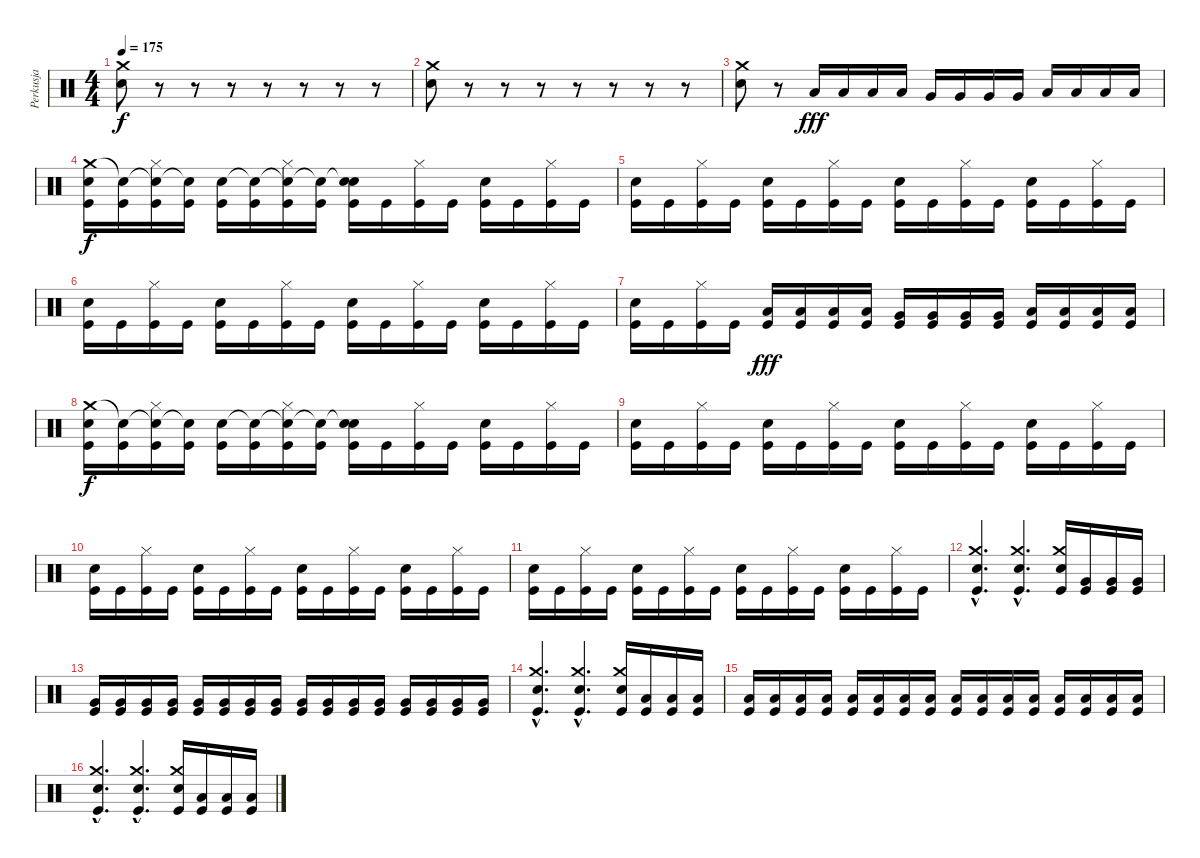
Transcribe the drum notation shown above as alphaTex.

\track ("Perkusja" "Perkusja") {instrument percussion}
\staff {score}
\articulation defaults
\ts (4 4)
\tempo 175
\clef neutral
\ks c
("Snare (hit) 2" "Crash medium (hit)").8{dy f} r.8 r.8 r.8 r.8 r.8 r.8 r.8 |
("Snare (hit) 2" "Crash medium (hit)").8 r.8 r.8 r.8 r.8 r.8 r.8 r.8 |
("Snare (hit) 2" "Crash medium (hit)").8 r.8 "Low Tom (hit)".16{dy fff} "Low Tom (hit)".16 "Low Tom (hit)".16 "Low Tom (hit)".16 "Very Low Tom (hit)".16 "Very Low Tom (hit)".16 "Very Low Tom (hit)".16 "Very Low Tom (hit)".16 "Low Floor Tom (hit)".16 "Low Floor Tom (hit)".16 "Low Floor Tom (hit)".16 "Low Floor Tom (hit)".16 |
("Crash medium (hit)" "Snare (hit) 2" "Kick (hit)").16{dy f} ("Snare (hit)"{t} "Kick (hit)").16 ("Snare (hit)"{t} "Hi-Hat (closed)" "Kick (hit)").16 ("Snare (hit)"{t} "Kick (hit)").16 ("Snare (hit) 2" "Kick (hit)").16 ("Snare (hit)"{t} "Kick (hit)").16 ("Snare (hit)"{t} "Hi-Hat (closed)" "Kick (hit)").16 ("Snare (hit)"{t} "Kick (hit)").16 ("Snare (hit)"{t} "Snare (hit) 2" "Kick (hit)").16 "Kick (hit)".16 ("Hi-Hat (closed)" "Kick (hit)").16 "Kick (hit)".16 ("Snare (hit) 2" "Kick (hit)").16 "Kick (hit)".16 ("Hi-Hat (closed)" "Kick (hit)").16 "Kick (hit)".16 |
("Snare (hit) 2" "Kick (hit)").16 "Kick (hit)".16 ("Hi-Hat (closed)" "Kick (hit)").16 "Kick (hit)".16 ("Snare (hit) 2" "Kick (hit)").16 "Kick (hit)".16 ("Hi-Hat (closed)" "Kick (hit)").16 "Kick (hit)".16 ("Snare (hit) 2" "Kick (hit)").16 "Kick (hit)".16 ("Hi-Hat (closed)" "Kick (hit)").16 "Kick (hit)".16 ("Snare (hit) 2" "Kick (hit)").16 "Kick (hit)".16 ("Hi-Hat (closed)" "Kick (hit)").16 "Kick (hit)".16 |
("Snare (hit) 2" "Kick (hit)").16 "Kick (hit)".16 ("Hi-Hat (closed)" "Kick (hit)").16 "Kick (hit)".16 ("Snare (hit) 2" "Kick (hit)").16 "Kick (hit)".16 ("Hi-Hat (closed)" "Kick (hit)").16 "Kick (hit)".16 ("Snare (hit) 2" "Kick (hit)").16 "Kick (hit)".16 ("Hi-Hat (closed)" "Kick (hit)").16 "Kick (hit)".16 ("Snare (hit) 2" "Kick (hit)").16 "Kick (hit)".16 ("Hi-Hat (closed)" "Kick (hit)").16 "Kick (hit)".16 |
("Snare (hit) 2" "Kick (hit)").16 "Kick (hit)".16 ("Hi-Hat (closed)" "Kick (hit)").16 "Kick (hit)".16 ("Low Tom (hit)" "Kick (hit)").16{dy fff} ("Low Tom (hit)" "Kick (hit)").16 ("Low Tom (hit)" "Kick (hit)").16 ("Low Tom (hit)" "Kick (hit)").16 ("Very Low Tom (hit)" "Kick (hit)").16 ("Very Low Tom (hit)" "Kick (hit)").16 ("Very Low Tom (hit)" "Kick (hit)").16 ("Very Low Tom (hit)" "Kick (hit)").16 ("Low Floor Tom (hit)" "Kick (hit)").16 ("Low Floor Tom (hit)" "Kick (hit)").16 ("Low Floor Tom (hit)" "Kick (hit)").16 ("Low Floor Tom (hit)" "Kick (hit)").16 |
("Crash medium (hit)" "Snare (hit) 2" "Kick (hit)").16{dy f} ("Snare (hit)"{t} "Kick (hit)").16 ("Snare (hit)"{t} "Hi-Hat (closed)" "Kick (hit)").16 ("Snare (hit)"{t} "Kick (hit)").16 ("Snare (hit) 2" "Kick (hit)").16 ("Snare (hit)"{t} "Kick (hit)").16 ("Snare (hit)"{t} "Hi-Hat (closed)" "Kick (hit)").16 ("Snare (hit)"{t} "Kick (hit)").16 ("Snare (hit)"{t} "Snare (hit) 2" "Kick (hit)").16 "Kick (hit)".16 ("Hi-Hat (closed)" "Kick (hit)").16 "Kick (hit)".16 ("Snare (hit) 2" "Kick (hit)").16 "Kick (hit)".16 ("Hi-Hat (closed)" "Kick (hit)").16 "Kick (hit)".16 |
("Snare (hit) 2" "Kick (hit)").16 "Kick (hit)".16 ("Hi-Hat (closed)" "Kick (hit)").16 "Kick (hit)".16 ("Snare (hit) 2" "Kick (hit)").16 "Kick (hit)".16 ("Hi-Hat (closed)" "Kick (hit)").16 "Kick (hit)".16 ("Snare (hit) 2" "Kick (hit)").16 "Kick (hit)".16 ("Hi-Hat (closed)" "Kick (hit)").16 "Kick (hit)".16 ("Snare (hit) 2" "Kick (hit)").16 "Kick (hit)".16 ("Hi-Hat (closed)" "Kick (hit)").16 "Kick (hit)".16 |
("Snare (hit) 2" "Kick (hit)").16 "Kick (hit)".16 ("Hi-Hat (closed)" "Kick (hit)").16 "Kick (hit)".16 ("Snare (hit) 2" "Kick (hit)").16 "Kick (hit)".16 ("Hi-Hat (closed)" "Kick (hit)").16 "Kick (hit)".16 ("Snare (hit) 2" "Kick (hit)").16 "Kick (hit)".16 ("Hi-Hat (closed)" "Kick (hit)").16 "Kick (hit)".16 ("Snare (hit) 2" "Kick (hit)").16 "Kick (hit)".16 ("Hi-Hat (closed)" "Kick (hit)").16 "Kick (hit)".16 |
("Snare (hit) 2" "Kick (hit)").16 "Kick (hit)".16 ("Hi-Hat (closed)" "Kick (hit)").16 "Kick (hit)".16 ("Snare (hit) 2" "Kick (hit)").16 "Kick (hit)".16 ("Hi-Hat (closed)" "Kick (hit)").16 "Kick (hit)".16 ("Snare (hit) 2" "Kick (hit)").16 "Kick (hit)".16 ("Hi-Hat (closed)" "Kick (hit)").16 "Kick (hit)".16 ("Snare (hit) 2" "Kick (hit)").16 "Kick (hit)".16 ("Hi-Hat (closed)" "Kick (hit)").16 "Kick (hit)".16 |
("Crash medium (hit)"{hac} "Snare (hit) 2"{hac} "Kick (hit)"{hac}).4{d} ("Crash medium (hit)"{hac} "Snare (hit) 2"{hac} "Kick (hit)"{hac}).4{d} ("Crash medium (hit)" "Snare (hit) 2" "Kick (hit)").16 ("Very Low Tom (hit)" "Kick (hit)").16 ("Very Low Tom (hit)" "Kick (hit)").16 ("Very Low Tom (hit)" "Kick (hit)").16 |
("Very Low Tom (hit)" "Kick (hit)").16 ("Very Low Tom (hit)" "Kick (hit)").16 ("Very Low Tom (hit)" "Kick (hit)").16 ("Very Low Tom (hit)" "Kick (hit)").16 ("Very Low Tom (hit)" "Kick (hit)").16 ("Very Low Tom (hit)" "Kick (hit)").16 ("Very Low Tom (hit)" "Kick (hit)").16 ("Very Low Tom (hit)" "Kick (hit)").16 ("Very Low Tom (hit)" "Kick (hit)").16 ("Very Low Tom (hit)" "Kick (hit)").16 ("Very Low Tom (hit)" "Kick (hit)").16 ("Very Low Tom (hit)" "Kick (hit)").16 ("Very Low Tom (hit)" "Kick (hit)").16 ("Very Low Tom (hit)" "Kick (hit)").16 ("Very Low Tom (hit)" "Kick (hit)").16 ("Very Low Tom (hit)" "Kick (hit)").16 |
("Crash medium (hit)"{hac} "Snare (hit) 2"{hac} "Kick (hit)"{hac}).4{d} ("Crash medium (hit)"{hac} "Snare (hit) 2"{hac} "Kick (hit)"{hac}).4{d} ("Crash medium (hit)" "Snare (hit) 2" "Kick (hit)").16 ("Low Floor Tom (hit)" "Kick (hit)").16 ("Low Floor Tom (hit)" "Kick (hit)").16 ("Low Floor Tom (hit)" "Kick (hit)").16 |
("Low Floor Tom (hit)" "Kick (hit)").16 ("Low Floor Tom (hit)" "Kick (hit)").16 ("Low Floor Tom (hit)" "Kick (hit)").16 ("Low Floor Tom (hit)" "Kick (hit)").16 ("Low Floor Tom (hit)" "Kick (hit)").16 ("Low Floor Tom (hit)" "Kick (hit)").16 ("Low Floor Tom (hit)" "Kick (hit)").16 ("Low Floor Tom (hit)" "Kick (hit)").16 ("Low Floor Tom (hit)" "Kick (hit)").16 ("Low Floor Tom (hit)" "Kick (hit)").16 ("Low Floor Tom (hit)" "Kick (hit)").16 ("Low Floor Tom (hit)" "Kick (hit)").16 ("Low Floor Tom (hit)" "Kick (hit)").16 ("Low Floor Tom (hit)" "Kick (hit)").16 ("Low Floor Tom (hit)" "Kick (hit)").16 ("Low Floor Tom (hit)" "Kick (hit)").16 |
("Crash medium (hit)"{hac} "Snare (hit) 2"{hac} "Kick (hit)"{hac}).4{d} ("Crash medium (hit)"{hac} "Snare (hit) 2"{hac} "Kick (hit)"{hac}).4{d} ("Crash medium (hit)" "Snare (hit) 2" "Kick (hit)").16 ("Low Tom (hit)" "Kick (hit)").16 ("Low Tom (hit)" "Kick (hit)").16 ("Low Tom (hit)" "Kick (hit)").16
